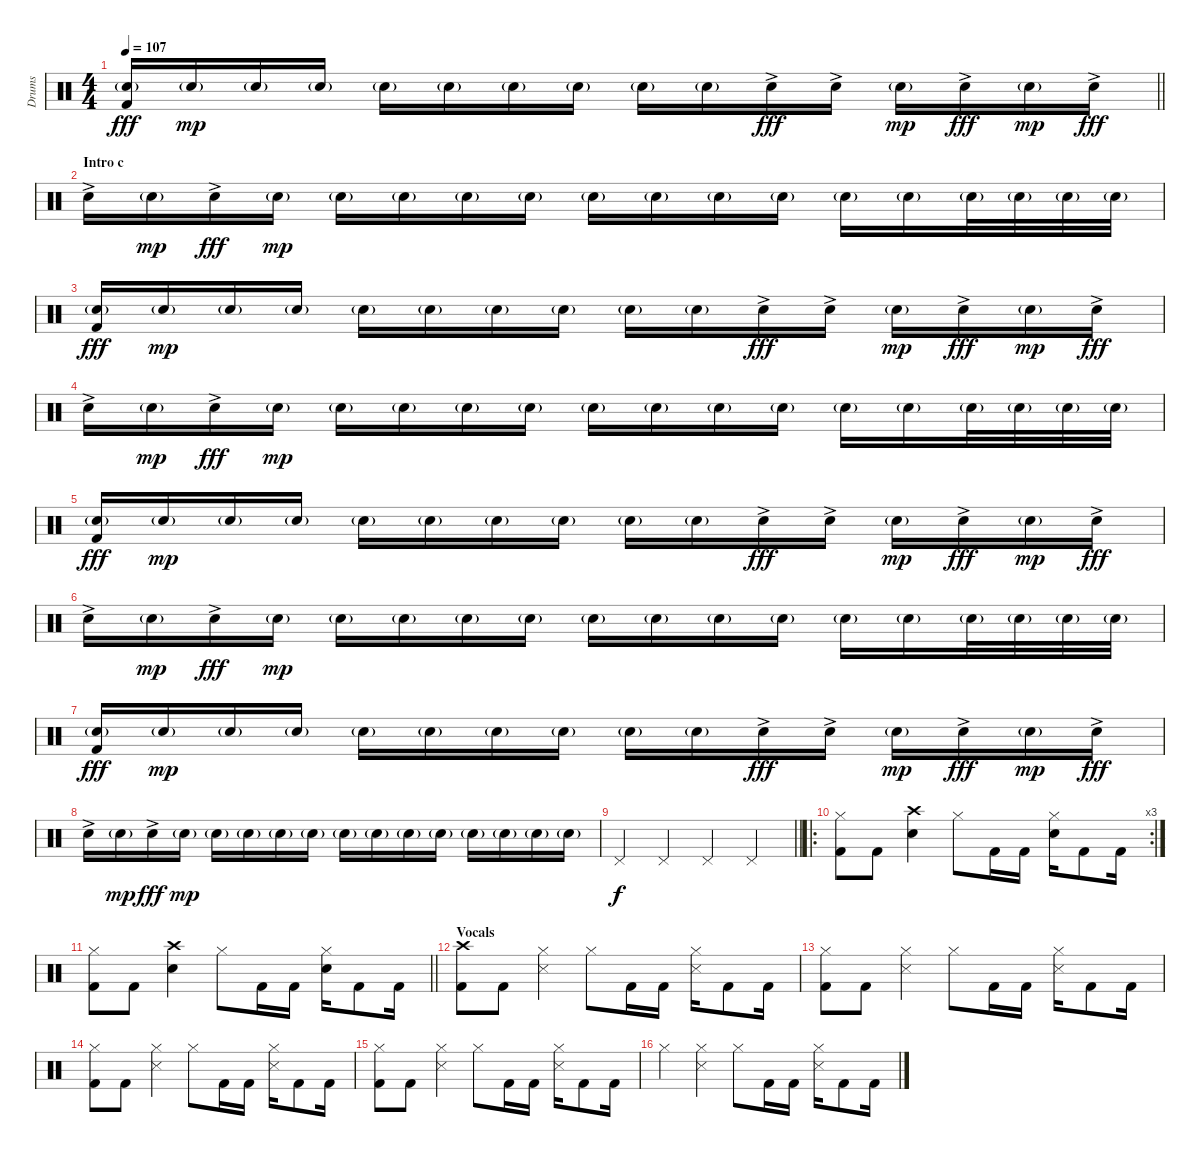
\track ("Drums " "Drums ") {instrument percussion}
\staff {score}
\articulation defaults
\ts (4 4)
\tempo 107
\clef neutral
\barLineRight lightlight
\ks c
("Electric Snare (hit)"{g} "Kick (hit) 2").16{dy fff} "Electric Snare (hit)"{g}.16{dy mp} "Electric Snare (hit)"{g}.16 "Electric Snare (hit)"{g}.16 "Electric Snare (hit)"{g}.16 "Electric Snare (hit)"{g}.16 "Electric Snare (hit)"{g}.16 "Electric Snare (hit)"{g}.16 "Electric Snare (hit)"{g}.16 "Electric Snare (hit)"{g}.16 "Electric Snare (hit)"{ac}.16{dy fff} "Electric Snare (hit)"{ac}.16 "Electric Snare (hit)"{g}.16{dy mp} "Electric Snare (hit)"{ac}.16{dy fff} "Electric Snare (hit)"{g}.16{dy mp} "Electric Snare (hit)"{ac}.16{dy fff} |
\section ("" "Intro c")
"Electric Snare (hit)"{ac}.16 "Electric Snare (hit)"{g}.16{dy mp} "Electric Snare (hit)"{ac}.16{dy fff} "Electric Snare (hit)"{g}.16{dy mp} "Electric Snare (hit)"{g}.16 "Electric Snare (hit)"{g}.16 "Electric Snare (hit)"{g}.16 "Electric Snare (hit)"{g}.16 "Electric Snare (hit)"{g}.16 "Electric Snare (hit)"{g}.16 "Electric Snare (hit)"{g}.16 "Electric Snare (hit)"{g}.16 "Electric Snare (hit)"{g}.16 "Electric Snare (hit)"{g}.16 "Electric Snare (hit)"{g}.32 "Electric Snare (hit)"{g}.32 "Electric Snare (hit)"{g}.32 "Electric Snare (hit)"{g}.32 |
("Electric Snare (hit)"{g} "Kick (hit) 2").16{dy fff} "Electric Snare (hit)"{g}.16{dy mp} "Electric Snare (hit)"{g}.16 "Electric Snare (hit)"{g}.16 "Electric Snare (hit)"{g}.16 "Electric Snare (hit)"{g}.16 "Electric Snare (hit)"{g}.16 "Electric Snare (hit)"{g}.16 "Electric Snare (hit)"{g}.16 "Electric Snare (hit)"{g}.16 "Electric Snare (hit)"{ac}.16{dy fff} "Electric Snare (hit)"{ac}.16 "Electric Snare (hit)"{g}.16{dy mp} "Electric Snare (hit)"{ac}.16{dy fff} "Electric Snare (hit)"{g}.16{dy mp} "Electric Snare (hit)"{ac}.16{dy fff} |
"Electric Snare (hit)"{ac}.16 "Electric Snare (hit)"{g}.16{dy mp} "Electric Snare (hit)"{ac}.16{dy fff} "Electric Snare (hit)"{g}.16{dy mp} "Electric Snare (hit)"{g}.16 "Electric Snare (hit)"{g}.16 "Electric Snare (hit)"{g}.16 "Electric Snare (hit)"{g}.16 "Electric Snare (hit)"{g}.16 "Electric Snare (hit)"{g}.16 "Electric Snare (hit)"{g}.16 "Electric Snare (hit)"{g}.16 "Electric Snare (hit)"{g}.16 "Electric Snare (hit)"{g}.16 "Electric Snare (hit)"{g}.32 "Electric Snare (hit)"{g}.32 "Electric Snare (hit)"{g}.32 "Electric Snare (hit)"{g}.32 |
("Electric Snare (hit)"{g} "Kick (hit) 2").16{dy fff} "Electric Snare (hit)"{g}.16{dy mp} "Electric Snare (hit)"{g}.16 "Electric Snare (hit)"{g}.16 "Electric Snare (hit)"{g}.16 "Electric Snare (hit)"{g}.16 "Electric Snare (hit)"{g}.16 "Electric Snare (hit)"{g}.16 "Electric Snare (hit)"{g}.16 "Electric Snare (hit)"{g}.16 "Electric Snare (hit)"{ac}.16{dy fff} "Electric Snare (hit)"{ac}.16 "Electric Snare (hit)"{g}.16{dy mp} "Electric Snare (hit)"{ac}.16{dy fff} "Electric Snare (hit)"{g}.16{dy mp} "Electric Snare (hit)"{ac}.16{dy fff} |
"Electric Snare (hit)"{ac}.16 "Electric Snare (hit)"{g}.16{dy mp} "Electric Snare (hit)"{ac}.16{dy fff} "Electric Snare (hit)"{g}.16{dy mp} "Electric Snare (hit)"{g}.16 "Electric Snare (hit)"{g}.16 "Electric Snare (hit)"{g}.16 "Electric Snare (hit)"{g}.16 "Electric Snare (hit)"{g}.16 "Electric Snare (hit)"{g}.16 "Electric Snare (hit)"{g}.16 "Electric Snare (hit)"{g}.16 "Electric Snare (hit)"{g}.16 "Electric Snare (hit)"{g}.16 "Electric Snare (hit)"{g}.32 "Electric Snare (hit)"{g}.32 "Electric Snare (hit)"{g}.32 "Electric Snare (hit)"{g}.32 |
("Electric Snare (hit)"{g} "Kick (hit) 2").16{dy fff} "Electric Snare (hit)"{g}.16{dy mp} "Electric Snare (hit)"{g}.16 "Electric Snare (hit)"{g}.16 "Electric Snare (hit)"{g}.16 "Electric Snare (hit)"{g}.16 "Electric Snare (hit)"{g}.16 "Electric Snare (hit)"{g}.16 "Electric Snare (hit)"{g}.16 "Electric Snare (hit)"{g}.16 "Electric Snare (hit)"{ac}.16{dy fff} "Electric Snare (hit)"{ac}.16 "Electric Snare (hit)"{g}.16{dy mp} "Electric Snare (hit)"{ac}.16{dy fff} "Electric Snare (hit)"{g}.16{dy mp} "Electric Snare (hit)"{ac}.16{dy fff} |
"Electric Snare (hit)"{ac}.16 "Electric Snare (hit)"{g}.16{dy mp} "Electric Snare (hit)"{ac}.16{dy fff} "Electric Snare (hit)"{g}.16{dy mp} "Electric Snare (hit)"{g}.16 "Electric Snare (hit)"{g}.16 "Electric Snare (hit)"{g}.16 "Electric Snare (hit)"{g}.16 "Electric Snare (hit)"{g}.16 "Electric Snare (hit)"{g}.16 "Electric Snare (hit)"{g}.16 "Electric Snare (hit)"{g}.16 "Electric Snare (hit)"{g}.16 "Electric Snare (hit)"{g}.16 "Electric Snare (hit)"{g}.16 "Electric Snare (hit)"{g}.16 |
\barLineRight lightlight "Pedal Hi-Hat (hit)".4{dy f} "Pedal Hi-Hat (hit)".4 "Pedal Hi-Hat (hit)".4 "Pedal Hi-Hat (hit)".4
|
\ro
\rc 3
\section ("" "")
("Hi-Hat (closed)" "Kick (hit) 2").8 "Kick (hit) 2".8 ("Crash high (hit)" "Electric Snare (hit)").4 "Hi-Hat (closed)".8 "Kick (hit) 2".16 "Kick (hit) 2".16 ("Hi-Hat (closed)" "Electric Snare (hit)").16 "Kick (hit) 2".8 "Kick (hit) 2".16 |
\barLineRight lightlight
("Hi-Hat (closed)" "Kick (hit) 2").8 "Kick (hit) 2".8 ("Crash high (hit)" "Electric Snare (hit)").4 "Hi-Hat (closed)".8 "Kick (hit) 2".16 "Kick (hit) 2".16 ("Hi-Hat (closed)" "Electric Snare (hit)").16 "Kick (hit) 2".8 "Kick (hit) 2".16 |
\section ("" "Vocals")
("Crash high (hit)" "Kick (hit) 2").8 "Kick (hit) 2".8 ("Hi-Hat (closed)" "Snare (side stick) 3").4 "Hi-Hat (closed)".8 "Kick (hit) 2".16 "Kick (hit) 2".16 ("Hi-Hat (closed)" "Snare (side stick) 3").16 "Kick (hit) 2".8 "Kick (hit) 2".16 |
("Hi-Hat (closed)" "Kick (hit) 2").8 "Kick (hit) 2".8 ("Hi-Hat (closed)" "Snare (side stick) 3").4 "Hi-Hat (closed)".8 "Kick (hit) 2".16 "Kick (hit) 2".16 ("Hi-Hat (closed)" "Snare (side stick) 3").16 "Kick (hit) 2".8 "Kick (hit) 2".16 |
("Hi-Hat (closed)" "Kick (hit) 2").8 "Kick (hit) 2".8 ("Hi-Hat (closed)" "Snare (side stick) 3").4 "Hi-Hat (closed)".8 "Kick (hit) 2".16 "Kick (hit) 2".16 ("Hi-Hat (closed)" "Snare (side stick) 3").16 "Kick (hit) 2".8 "Kick (hit) 2".16 |
("Hi-Hat (closed)" "Kick (hit) 2").8 "Kick (hit) 2".8 ("Hi-Hat (closed)" "Snare (side stick) 3").4 "Hi-Hat (closed)".8 "Kick (hit) 2".16 "Kick (hit) 2".16 ("Hi-Hat (closed)" "Snare (side stick) 3").16 "Kick (hit) 2".8 "Kick (hit) 2".16 |
"Hi-Hat (closed)".4 ("Hi-Hat (closed)" "Snare (side stick) 3").4 "Hi-Hat (closed)".8 "Kick (hit) 2".16 "Kick (hit) 2".16 ("Hi-Hat (closed)" "Snare (side stick) 3").16 "Kick (hit) 2".8 "Kick (hit) 2".16
